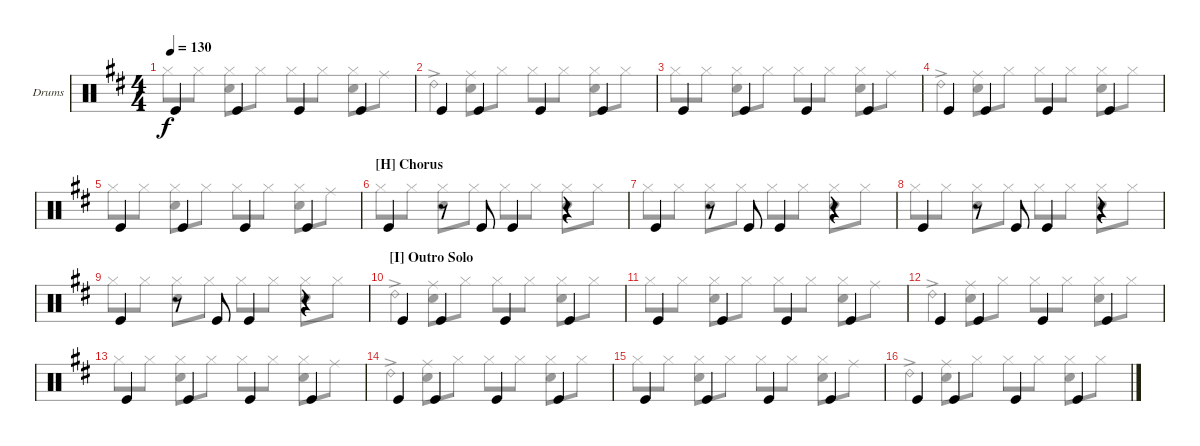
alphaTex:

\bracketExtendMode groupsimilarinstruments
\firstSystemTrackNameOrientation horizontal
\otherSystemsTrackNameOrientation horizontal
\track ("Drumkit" "Drums") {instrument percussion}
\staff {score}
\articulation defaults
\voice
\ts (4 4)
\tempo 130
\clef neutral
\scale
1.05044
\ks d "Kick (hit)".4{dy f} "Kick (hit)".4 "Kick (hit)".4 "Kick (hit)".4
|
\scale
0.949559 "Kick (hit)".4 "Kick (hit)".4 "Kick (hit)".4 "Kick (hit)".4 |
\scale
1.05044 "Kick (hit)".4 "Kick (hit)".4 "Kick (hit)".4 "Kick (hit)".4 |
\scale
0.949559 "Kick (hit)".4 "Kick (hit)".4 "Kick (hit)".4 "Kick (hit)".4 |
\scale
1.05044 "Kick (hit)".4 "Kick (hit)".4 "Kick (hit)".4 "Kick (hit)".4 |
\section ("H" "Chorus")
\scale
0.949559 "Kick (hit)".4 r.8 "Kick (hit)".8 "Kick (hit)".4 r.4 |
\scale
1.05044 "Kick (hit)".4 r.8 "Kick (hit)".8 "Kick (hit)".4 r.4 |
\scale
0.949559 "Kick (hit)".4 r.8 "Kick (hit)".8 "Kick (hit)".4 r.4 |
\scale
1.05044 "Kick (hit)".4 r.8 "Kick (hit)".8 "Kick (hit)".4 r.4 |
\section ("I" "Outro Solo")
\scale
0.949559 "Kick (hit)".4 "Kick (hit)".4 "Kick (hit)".4 "Kick (hit)".4 |
\scale
1.05044 "Kick (hit)".4 "Kick (hit)".4 "Kick (hit)".4 "Kick (hit)".4 |
\scale
0.949559 "Kick (hit)".4 "Kick (hit)".4 "Kick (hit)".4 "Kick (hit)".4 |
\scale
1.05044 "Kick (hit)".4 "Kick (hit)".4 "Kick (hit)".4 "Kick (hit)".4 |
\scale
0.949559 "Kick (hit)".4 "Kick (hit)".4 "Kick (hit)".4 "Kick (hit)".4 |
\scale
1.05044 "Kick (hit)".4 "Kick (hit)".4 "Kick (hit)".4 "Kick (hit)".4 |
\scale
0.949559 "Kick (hit)".4 "Kick (hit)".4 "Kick (hit)".4 "Kick (hit)".4
\voice
\clef neutral
\ottava regular
\simile none
\scale
1.05044
\ks d "Hi-Hat (closed)".8{dy f} "Hi-Hat (closed)".8
("Hi-Hat (closed)" "Snare (hit) 2").8 "Hi-Hat (closed)".8 "Hi-Hat (closed)".8 "Hi-Hat (closed)".8 ("Hi-Hat (closed)" "Snare (hit) 2").8 "Ride (middle)".8 |
\scale
0.949559 "Ride (bell) 2"{ac}.4 ("Snare (hit) 2" "Ride (middle)").8 "Hi-Hat (closed)".8 "Hi-Hat (closed)".8 "Hi-Hat (closed)".8 ("Hi-Hat (closed)" "Snare (hit) 2").8 "Hi-Hat (closed)".8 |
\scale
1.05044 "Hi-Hat (closed)".8 "Hi-Hat (closed)".8 ("Hi-Hat (closed)" "Snare (hit) 2").8 "Hi-Hat (closed)".8 "Hi-Hat (closed)".8 "Hi-Hat (closed)".8 ("Hi-Hat (closed)" "Snare (hit) 2").8 "Ride (middle)".8 |
\scale
0.949559 "Ride (bell) 2"{ac}.4 ("Snare (hit) 2" "Ride (middle)").8 "Hi-Hat (closed)".8 "Hi-Hat (closed)".8 "Hi-Hat (closed)".8 ("Hi-Hat (closed)" "Snare (hit) 2").8 "Hi-Hat (closed)".8 |
\scale
1.05044 "Hi-Hat (closed)".8 "Hi-Hat (closed)".8 ("Hi-Hat (closed)" "Snare (hit) 2").8 "Hi-Hat (closed)".8 "Hi-Hat (closed)".8 "Hi-Hat (closed)".8 ("Hi-Hat (closed)" "Snare (hit) 2").8 "Ride (middle)".8 |
\scale
0.949559 "Hi-Hat (closed)".8 "Hi-Hat (closed)".8 ("Hi-Hat (closed)" "Snare (hit) 2").8 "Hi-Hat (closed)".8 "Hi-Hat (closed)".8 "Hi-Hat (closed)".8 ("Hi-Hat (closed)" "Snare (hit) 2").8 "Hi-Hat (closed)".8 |
\scale
1.05044 "Hi-Hat (closed)".8 "Hi-Hat (closed)".8 ("Hi-Hat (closed)" "Snare (hit) 2").8 "Hi-Hat (closed)".8 "Hi-Hat (closed)".8 "Hi-Hat (closed)".8 ("Hi-Hat (closed)" "Snare (hit) 2").8 "Hi-Hat (closed)".8 |
\scale
0.949559 "Hi-Hat (closed)".8 "Hi-Hat (closed)".8 ("Hi-Hat (closed)" "Snare (hit) 2").8 "Hi-Hat (closed)".8 "Hi-Hat (closed)".8 "Hi-Hat (closed)".8 ("Hi-Hat (closed)" "Snare (hit) 2").8 "Hi-Hat (closed)".8 |
\scale
1.05044 "Hi-Hat (closed)".8 "Hi-Hat (closed)".8 ("Hi-Hat (closed)" "Snare (hit) 2").8 "Hi-Hat (closed)".8 "Hi-Hat (closed)".8 "Hi-Hat (closed)".8 ("Hi-Hat (closed)" "Snare (hit) 2").8 "Hi-Hat (closed)".8 |
\scale
0.949559 "Ride (bell) 2"{ac}.4 ("Snare (hit) 2" "Ride (middle)").8 "Hi-Hat (closed)".8 "Hi-Hat (closed)".8 "Hi-Hat (closed)".8 ("Hi-Hat (closed)" "Snare (hit) 2").8 "Hi-Hat (closed)".8 |
\scale
1.05044 "Hi-Hat (closed)".8 "Hi-Hat (closed)".8 ("Hi-Hat (closed)" "Snare (hit) 2").8 "Hi-Hat (closed)".8 "Hi-Hat (closed)".8 "Hi-Hat (closed)".8 ("Hi-Hat (closed)" "Snare (hit) 2").8 "Ride (middle)".8 |
\scale
0.949559 "Ride (bell) 2"{ac}.4 ("Snare (hit) 2" "Ride (middle)").8 "Hi-Hat (closed)".8 "Hi-Hat (closed)".8 "Hi-Hat (closed)".8 ("Hi-Hat (closed)" "Snare (hit) 2").8 "Hi-Hat (closed)".8 |
\scale
1.05044 "Hi-Hat (closed)".8 "Hi-Hat (closed)".8 ("Hi-Hat (closed)" "Snare (hit) 2").8 "Hi-Hat (closed)".8 "Hi-Hat (closed)".8 "Hi-Hat (closed)".8 ("Hi-Hat (closed)" "Snare (hit) 2").8 "Ride (middle)".8 |
\scale
0.949559 "Ride (bell) 2"{ac}.4 ("Snare (hit) 2" "Ride (middle)").8 "Hi-Hat (closed)".8 "Hi-Hat (closed)".8 "Hi-Hat (closed)".8 ("Hi-Hat (closed)" "Snare (hit) 2").8 "Hi-Hat (closed)".8 |
\scale
1.05044 "Hi-Hat (closed)".8 "Hi-Hat (closed)".8 ("Hi-Hat (closed)" "Snare (hit) 2").8 "Hi-Hat (closed)".8 "Hi-Hat (closed)".8 "Hi-Hat (closed)".8 ("Hi-Hat (closed)" "Snare (hit) 2").8 "Ride (middle)".8 |
\scale
0.949559 "Ride (bell) 2"{ac}.4 ("Snare (hit) 2" "Ride (middle)").8 "Hi-Hat (closed)".8 "Hi-Hat (closed)".8 "Hi-Hat (closed)".8 ("Hi-Hat (closed)" "Snare (hit) 2").8 "Hi-Hat (closed)".8
